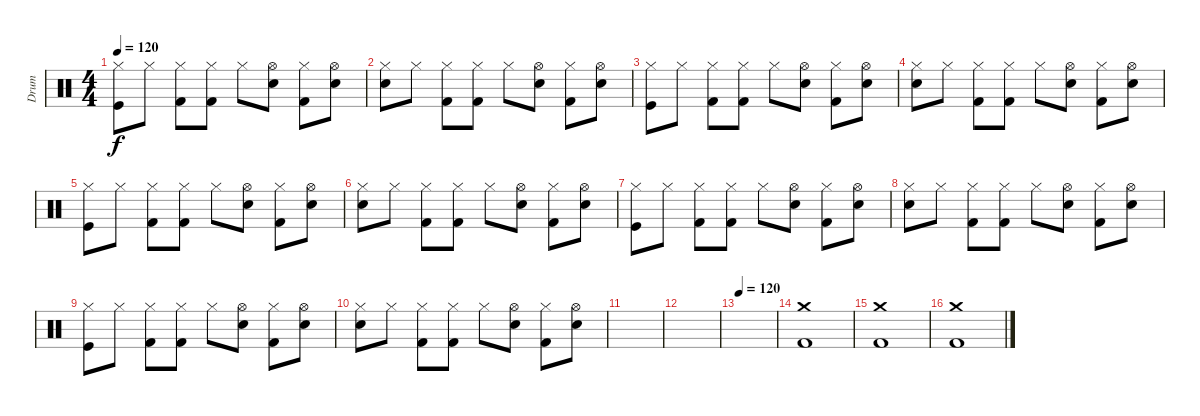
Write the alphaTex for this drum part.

\track ("Drum" "Drum") {instrument percussion}
\staff {score}
\articulation defaults
\ts (4 4)
\tempo 120
\clef neutral
\ks c
("Hi-Hat (closed)" "Kick (hit)").8{dy f} "Hi-Hat (closed)".8 ("Hi-Hat (closed)" "Kick (hit) 2").8 ("Hi-Hat (closed)" "Kick (hit) 2").8 "Hi-Hat (closed)".8 ("Hi-Hat (open)" "Snare (hit) 2").8 ("Hi-Hat (closed)" "Kick (hit) 2").8 ("Hi-Hat (open)" "Snare (hit) 2").8 |
("Hi-Hat (closed)" "Snare (hit) 2").8 "Hi-Hat (closed)".8 ("Hi-Hat (closed)" "Kick (hit) 2").8 ("Hi-Hat (closed)" "Kick (hit) 2").8 "Hi-Hat (closed)".8 ("Hi-Hat (open)" "Snare (hit) 2").8 ("Hi-Hat (closed)" "Kick (hit) 2").8 ("Hi-Hat (open)" "Snare (hit) 2").8 |
("Hi-Hat (closed)" "Kick (hit)").8 "Hi-Hat (closed)".8 ("Hi-Hat (closed)" "Kick (hit) 2").8 ("Hi-Hat (closed)" "Kick (hit) 2").8 "Hi-Hat (closed)".8 ("Hi-Hat (open)" "Snare (hit) 2").8 ("Hi-Hat (closed)" "Kick (hit) 2").8 ("Hi-Hat (open)" "Snare (hit) 2").8 |
("Hi-Hat (closed)" "Snare (hit) 2").8 "Hi-Hat (closed)".8 ("Hi-Hat (closed)" "Kick (hit) 2").8 ("Hi-Hat (closed)" "Kick (hit) 2").8 "Hi-Hat (closed)".8 ("Hi-Hat (open)" "Snare (hit) 2").8 ("Hi-Hat (closed)" "Kick (hit) 2").8 ("Hi-Hat (open)" "Snare (hit) 2").8 |
("Hi-Hat (closed)" "Kick (hit)").8 "Hi-Hat (closed)".8 ("Hi-Hat (closed)" "Kick (hit) 2").8 ("Hi-Hat (closed)" "Kick (hit) 2").8 "Hi-Hat (closed)".8 ("Hi-Hat (open)" "Snare (hit) 2").8 ("Hi-Hat (closed)" "Kick (hit) 2").8 ("Hi-Hat (open)" "Snare (hit) 2").8 |
("Hi-Hat (closed)" "Snare (hit) 2").8 "Hi-Hat (closed)".8 ("Hi-Hat (closed)" "Kick (hit) 2").8 ("Hi-Hat (closed)" "Kick (hit) 2").8 "Hi-Hat (closed)".8 ("Hi-Hat (open)" "Snare (hit) 2").8 ("Hi-Hat (closed)" "Kick (hit) 2").8 ("Hi-Hat (open)" "Snare (hit) 2").8 |
("Hi-Hat (closed)" "Kick (hit)").8 "Hi-Hat (closed)".8 ("Hi-Hat (closed)" "Kick (hit) 2").8 ("Hi-Hat (closed)" "Kick (hit) 2").8 "Hi-Hat (closed)".8 ("Hi-Hat (open)" "Snare (hit) 2").8 ("Hi-Hat (closed)" "Kick (hit) 2").8 ("Hi-Hat (open)" "Snare (hit) 2").8 |
("Hi-Hat (closed)" "Snare (hit) 2").8 "Hi-Hat (closed)".8 ("Hi-Hat (closed)" "Kick (hit) 2").8 ("Hi-Hat (closed)" "Kick (hit) 2").8 "Hi-Hat (closed)".8 ("Hi-Hat (open)" "Snare (hit) 2").8 ("Hi-Hat (closed)" "Kick (hit) 2").8 ("Hi-Hat (open)" "Snare (hit) 2").8 |
("Hi-Hat (closed)" "Kick (hit)").8 "Hi-Hat (closed)".8 ("Hi-Hat (closed)" "Kick (hit) 2").8 ("Hi-Hat (closed)" "Kick (hit) 2").8 "Hi-Hat (closed)".8 ("Hi-Hat (open)" "Snare (hit) 2").8 ("Hi-Hat (closed)" "Kick (hit) 2").8 ("Hi-Hat (open)" "Snare (hit) 2").8 |
("Hi-Hat (closed)" "Snare (hit) 2").8 "Hi-Hat (closed)".8 ("Hi-Hat (closed)" "Kick (hit) 2").8 ("Hi-Hat (closed)" "Kick (hit) 2").8 "Hi-Hat (closed)".8 ("Hi-Hat (open)" "Snare (hit) 2").8 ("Hi-Hat (closed)" "Kick (hit) 2").8 ("Hi-Hat (open)" "Snare (hit) 2").8 |
|
|
\tempo 120
|
("Crash medium (hit)" "Kick (hit) 2").1 |
("Crash medium (hit)" "Kick (hit) 2").1 |
("Crash medium (hit)" "Kick (hit) 2").1
